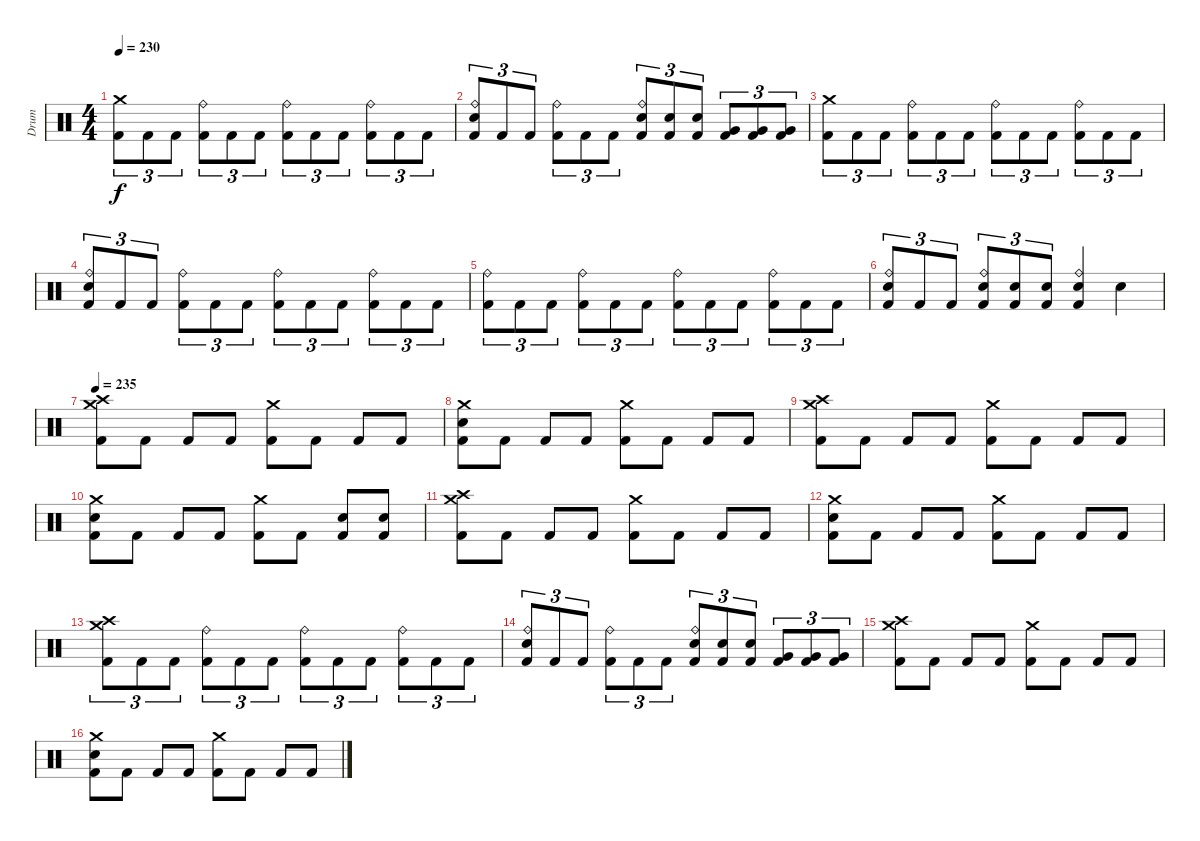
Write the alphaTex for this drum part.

\track ("Drum" "Drum") {instrument percussion}
\staff {score}
\articulation defaults
\ts (4 4)
\tempo 230
\clef neutral
\ks c
("Crash medium (hit)" "Kick (hit) 2").8{tu (3 2) dy f} "Kick (hit) 2".8{tu (3 2)} "Kick (hit) 2".8{tu (3 2)} ("Ride (bell)" "Kick (hit) 2").8{tu (3 2)} "Kick (hit) 2".8{tu (3 2)} "Kick (hit) 2".8{tu (3 2)} ("Ride (bell)" "Kick (hit) 2").8{tu (3 2)} "Kick (hit) 2".8{tu (3 2)} "Kick (hit) 2".8{tu (3 2)} ("Ride (bell)" "Kick (hit) 2").8{tu (3 2)} "Kick (hit) 2".8{tu (3 2)} "Kick (hit) 2".8{tu (3 2)} |
("Ride (bell)" "Electric Snare (hit)" "Kick (hit) 2").8{tu (3 2)} "Kick (hit) 2".8{tu (3 2)} "Kick (hit) 2".8{tu (3 2)} ("Ride (bell)" "Kick (hit) 2").8{tu (3 2)} "Kick (hit) 2".8{tu (3 2)} "Kick (hit) 2".8{tu (3 2)} ("Ride (bell)" "Electric Snare (hit)" "Kick (hit) 2").8{tu (3 2)} ("Electric Snare (hit)" "Kick (hit) 2").8{tu (3 2)} ("Electric Snare (hit)" "Kick (hit) 2").8{tu (3 2)} ("Very Low Tom (hit)" "Kick (hit) 2").8{tu (3 2)} ("Very Low Tom (hit)" "Kick (hit) 2").8{tu (3 2)} ("Very Low Tom (hit)" "Kick (hit) 2").8{tu (3 2)} |
("Crash medium (hit)" "Kick (hit) 2").8{tu (3 2)} "Kick (hit) 2".8{tu (3 2)} "Kick (hit) 2".8{tu (3 2)} ("Ride (bell)" "Kick (hit) 2").8{tu (3 2)} "Kick (hit) 2".8{tu (3 2)} "Kick (hit) 2".8{tu (3 2)} ("Ride (bell)" "Kick (hit) 2").8{tu (3 2)} "Kick (hit) 2".8{tu (3 2)} "Kick (hit) 2".8{tu (3 2)} ("Ride (bell)" "Kick (hit) 2").8{tu (3 2)} "Kick (hit) 2".8{tu (3 2)} "Kick (hit) 2".8{tu (3 2)} |
("Ride (bell)" "Electric Snare (hit)" "Kick (hit) 2").8{tu (3 2)} "Kick (hit) 2".8{tu (3 2)} "Kick (hit) 2".8{tu (3 2)} ("Ride (bell)" "Kick (hit) 2").8{tu (3 2)} "Kick (hit) 2".8{tu (3 2)} "Kick (hit) 2".8{tu (3 2)} ("Ride (bell)" "Kick (hit) 2").8{tu (3 2)} "Kick (hit) 2".8{tu (3 2)} "Kick (hit) 2".8{tu (3 2)} ("Ride (bell)" "Kick (hit) 2").8{tu (3 2)} "Kick (hit) 2".8{tu (3 2)} "Kick (hit) 2".8{tu (3 2)} |
("Ride (bell)" "Kick (hit) 2").8{tu (3 2)} "Kick (hit) 2".8{tu (3 2)} "Kick (hit) 2".8{tu (3 2)} ("Ride (bell)" "Kick (hit) 2").8{tu (3 2)} "Kick (hit) 2".8{tu (3 2)} "Kick (hit) 2".8{tu (3 2)} ("Ride (bell)" "Kick (hit) 2").8{tu (3 2)} "Kick (hit) 2".8{tu (3 2)} "Kick (hit) 2".8{tu (3 2)} ("Ride (bell)" "Kick (hit) 2").8{tu (3 2)} "Kick (hit) 2".8{tu (3 2)} "Kick (hit) 2".8{tu (3 2)} |
("Ride (bell)" "Electric Snare (hit)" "Kick (hit) 2").8{tu (3 2)} "Kick (hit) 2".8{tu (3 2)} "Kick (hit) 2".8{tu (3 2)} ("Ride (bell)" "Electric Snare (hit)" "Kick (hit) 2").8{tu (3 2)} ("Electric Snare (hit)" "Kick (hit) 2").8{tu (3 2)} ("Electric Snare (hit)" "Kick (hit) 2").8{tu (3 2)} ("Ride (bell)" "Electric Snare (hit)" "Kick (hit) 2").4 "Electric Snare (hit)".4 |
\tempo 235
("Crash medium (hit)" "Crash high (hit)" "Kick (hit) 2").8 "Kick (hit) 2".8 "Kick (hit) 2".8 "Kick (hit) 2".8 ("Crash medium (hit)" "Kick (hit) 2").8 "Kick (hit) 2".8 "Kick (hit) 2".8 "Kick (hit) 2".8 |
("Crash medium (hit)" "Electric Snare (hit)" "Kick (hit) 2").8 "Kick (hit) 2".8 "Kick (hit) 2".8 "Kick (hit) 2".8 ("Crash medium (hit)" "Kick (hit) 2").8 "Kick (hit) 2".8 "Kick (hit) 2".8 "Kick (hit) 2".8 |
("Crash medium (hit)" "Crash high (hit)" "Kick (hit) 2").8 "Kick (hit) 2".8 "Kick (hit) 2".8 "Kick (hit) 2".8 ("Crash medium (hit)" "Kick (hit) 2").8 "Kick (hit) 2".8 "Kick (hit) 2".8 "Kick (hit) 2".8 |
("Crash medium (hit)" "Electric Snare (hit)" "Kick (hit) 2").8 "Kick (hit) 2".8 "Kick (hit) 2".8 "Kick (hit) 2".8 ("Crash medium (hit)" "Kick (hit) 2").8 "Kick (hit) 2".8 ("Electric Snare (hit)" "Kick (hit) 2").8 ("Electric Snare (hit)" "Kick (hit) 2").8 |
("Crash medium (hit)" "Crash high (hit)" "Kick (hit) 2").8 "Kick (hit) 2".8 "Kick (hit) 2".8 "Kick (hit) 2".8 ("Crash medium (hit)" "Kick (hit) 2").8 "Kick (hit) 2".8 "Kick (hit) 2".8 "Kick (hit) 2".8 |
("Crash medium (hit)" "Electric Snare (hit)" "Kick (hit) 2").8 "Kick (hit) 2".8 "Kick (hit) 2".8 "Kick (hit) 2".8 ("Crash medium (hit)" "Kick (hit) 2").8 "Kick (hit) 2".8 "Kick (hit) 2".8 "Kick (hit) 2".8 |
("Crash medium (hit)" "Crash high (hit)" "Kick (hit) 2").8{tu (3 2)} "Kick (hit) 2".8{tu (3 2)} "Kick (hit) 2".8{tu (3 2)} ("Ride (bell)" "Kick (hit) 2").8{tu (3 2)} "Kick (hit) 2".8{tu (3 2)} "Kick (hit) 2".8{tu (3 2)} ("Ride (bell)" "Kick (hit) 2").8{tu (3 2)} "Kick (hit) 2".8{tu (3 2)} "Kick (hit) 2".8{tu (3 2)} ("Ride (bell)" "Kick (hit) 2").8{tu (3 2)} "Kick (hit) 2".8{tu (3 2)} "Kick (hit) 2".8{tu (3 2)} |
("Ride (bell)" "Electric Snare (hit)" "Kick (hit) 2").8{tu (3 2)} "Kick (hit) 2".8{tu (3 2)} "Kick (hit) 2".8{tu (3 2)} ("Ride (bell)" "Kick (hit) 2").8{tu (3 2)} "Kick (hit) 2".8{tu (3 2)} "Kick (hit) 2".8{tu (3 2)} ("Ride (bell)" "Electric Snare (hit)" "Kick (hit) 2").8{tu (3 2)} ("Electric Snare (hit)" "Kick (hit) 2").8{tu (3 2)} ("Electric Snare (hit)" "Kick (hit) 2").8{tu (3 2)} ("Very Low Tom (hit)" "Kick (hit) 2").8{tu (3 2)} ("Very Low Tom (hit)" "Kick (hit) 2").8{tu (3 2)} ("Very Low Tom (hit)" "Kick (hit) 2").8{tu (3 2)} |
("Crash medium (hit)" "Crash high (hit)" "Kick (hit) 2").8 "Kick (hit) 2".8 "Kick (hit) 2".8 "Kick (hit) 2".8 ("Crash medium (hit)" "Kick (hit) 2").8 "Kick (hit) 2".8 "Kick (hit) 2".8 "Kick (hit) 2".8 |
("Crash medium (hit)" "Electric Snare (hit)" "Kick (hit) 2").8 "Kick (hit) 2".8 "Kick (hit) 2".8 "Kick (hit) 2".8 ("Crash medium (hit)" "Kick (hit) 2").8 "Kick (hit) 2".8 "Kick (hit) 2".8 "Kick (hit) 2".8
